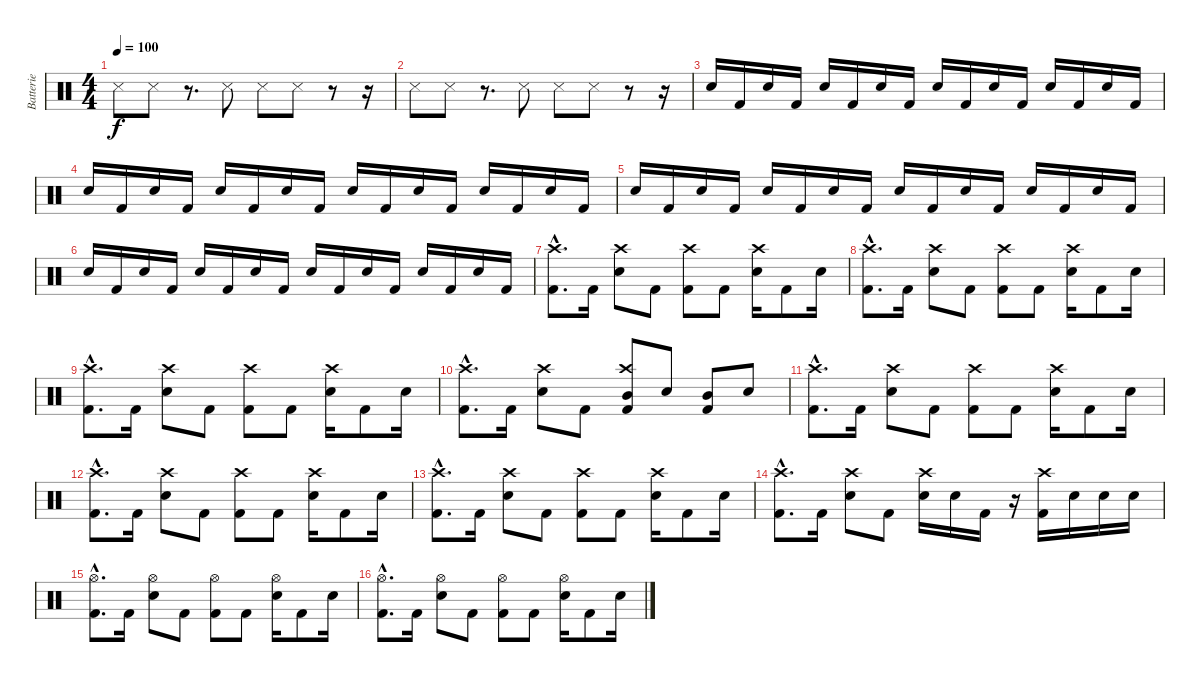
\track ("Batterie" "Batterie") {instrument percussion}
\staff {score}
\articulation defaults
\ts (4 4)
\tempo 100
\clef neutral
\ks c "Snare (side stick) 3".8{dy f} "Snare (side stick) 3".8
r.8{d} "Snare (side stick) 3".8 "Snare (side stick) 3".8 "Snare (side stick) 3".8 r.8 r.16 |
"Snare (side stick) 3".8 "Snare (side stick) 3".8 r.8{d} "Snare (side stick) 3".8 "Snare (side stick) 3".8 "Snare (side stick) 3".8 r.8 r.16 |
"Snare (hit) 2".16 "Kick (hit) 2".16 "Snare (hit) 2".16 "Kick (hit) 2".16 "Snare (hit) 2".16 "Kick (hit) 2".16 "Snare (hit) 2".16 "Kick (hit) 2".16 "Snare (hit) 2".16 "Kick (hit) 2".16 "Snare (hit) 2".16 "Kick (hit) 2".16 "Snare (hit) 2".16 "Kick (hit) 2".16 "Snare (hit) 2".16 "Kick (hit) 2".16 |
"Snare (hit) 2".16 "Kick (hit) 2".16 "Snare (hit) 2".16 "Kick (hit) 2".16 "Snare (hit) 2".16 "Kick (hit) 2".16 "Snare (hit) 2".16 "Kick (hit) 2".16 "Snare (hit) 2".16 "Kick (hit) 2".16 "Snare (hit) 2".16 "Kick (hit) 2".16 "Snare (hit) 2".16 "Kick (hit) 2".16 "Snare (hit) 2".16 "Kick (hit) 2".16 |
"Snare (hit) 2".16 "Kick (hit) 2".16 "Snare (hit) 2".16 "Kick (hit) 2".16 "Snare (hit) 2".16 "Kick (hit) 2".16 "Snare (hit) 2".16 "Kick (hit) 2".16 "Snare (hit) 2".16 "Kick (hit) 2".16 "Snare (hit) 2".16 "Kick (hit) 2".16 "Snare (hit) 2".16 "Kick (hit) 2".16 "Snare (hit) 2".16 "Kick (hit) 2".16 |
"Snare (hit) 2".16 "Kick (hit) 2".16 "Snare (hit) 2".16 "Kick (hit) 2".16 "Snare (hit) 2".16 "Kick (hit) 2".16 "Snare (hit) 2".16 "Kick (hit) 2".16 "Snare (hit) 2".16 "Kick (hit) 2".16 "Snare (hit) 2".16 "Kick (hit) 2".16 "Snare (hit) 2".16 "Kick (hit) 2".16 "Snare (hit) 2".16 "Kick (hit) 2".16 |
("Crash high (hit)"{hac} "Kick (hit) 2"{hac}).8{d} "Kick (hit) 2".16 ("Crash high (hit)" "Snare (hit) 2").8 "Kick (hit) 2".8 ("Crash high (hit)" "Kick (hit) 2").8 "Kick (hit) 2".8 ("Crash high (hit)" "Snare (hit) 2").16 "Kick (hit) 2".8 "Snare (hit) 2".16 |
("Crash high (hit)"{hac} "Kick (hit) 2"{hac}).8{d} "Kick (hit) 2".16 ("Crash high (hit)" "Snare (hit) 2").8 "Kick (hit) 2".8 ("Crash high (hit)" "Kick (hit) 2").8 "Kick (hit) 2".8 ("Crash high (hit)" "Snare (hit) 2").16 "Kick (hit) 2".8 "Snare (hit) 2".16 |
("Crash high (hit)"{hac} "Kick (hit) 2"{hac}).8{d} "Kick (hit) 2".16 ("Crash high (hit)" "Snare (hit) 2").8 "Kick (hit) 2".8 ("Crash high (hit)" "Kick (hit) 2").8 "Kick (hit) 2".8 ("Crash high (hit)" "Snare (hit) 2").16 "Kick (hit) 2".8 "Snare (hit) 2".16 |
("Crash high (hit)"{hac} "Kick (hit) 2"{hac}).8{d} "Kick (hit) 2".16 ("Crash high (hit)" "Snare (hit) 2").8 "Kick (hit) 2".8 ("Crash high (hit)" "Mid Tom (hit)" "Kick (hit) 2"{tr (36 32)}).8 "Snare (hit) 2"{tr (38 32)}.8 ("Mid Tom (hit)" "Kick (hit) 2"{tr (36 32)}).8 "Snare (hit) 2"{tr (38 32)}.8 |
("Crash high (hit)"{hac} "Kick (hit) 2"{hac}).8{d} "Kick (hit) 2".16 ("Crash high (hit)" "Snare (hit) 2").8 "Kick (hit) 2".8 ("Crash high (hit)" "Kick (hit) 2").8 "Kick (hit) 2".8 ("Crash high (hit)" "Snare (hit) 2").16 "Kick (hit) 2".8 "Snare (hit) 2".16 |
("Crash high (hit)"{hac} "Kick (hit) 2"{hac}).8{d} "Kick (hit) 2".16 ("Crash high (hit)" "Snare (hit) 2").8 "Kick (hit) 2".8 ("Crash high (hit)" "Kick (hit) 2").8 "Kick (hit) 2".8 ("Crash high (hit)" "Snare (hit) 2").16 "Kick (hit) 2".8 "Snare (hit) 2".16 |
("Crash high (hit)"{hac} "Kick (hit) 2"{hac}).8{d} "Kick (hit) 2".16 ("Crash high (hit)" "Snare (hit) 2").8 "Kick (hit) 2".8 ("Crash high (hit)" "Kick (hit) 2").8 "Kick (hit) 2".8 ("Crash high (hit)" "Snare (hit) 2").16 "Kick (hit) 2".8 "Snare (hit) 2".16 |
("Crash high (hit)"{hac} "Kick (hit) 2"{hac}).8{d} "Kick (hit) 2".16 ("Crash high (hit)" "Snare (hit) 2").8 "Kick (hit) 2".8 ("Crash high (hit)" "Snare (hit) 2").16 "Snare (hit) 2".16 "Kick (hit) 2".16 r.16 ("Crash high (hit)" "Kick (hit) 2").16 "Snare (hit) 2".16 "Snare (hit) 2".16 "Snare (hit) 2".16 |
("Hi-Hat (open)"{hac} "Kick (hit) 2"{hac}).8{d} "Kick (hit) 2".16 ("Hi-Hat (open)" "Snare (hit) 2").8 "Kick (hit) 2".8 ("Hi-Hat (open)" "Kick (hit) 2").8 "Kick (hit) 2".8 ("Hi-Hat (open)" "Snare (hit) 2").16 "Kick (hit) 2".8 "Snare (hit) 2".16 |
("Hi-Hat (open)"{hac} "Kick (hit) 2"{hac}).8{d} "Kick (hit) 2".16 ("Hi-Hat (open)" "Snare (hit) 2").8 "Kick (hit) 2".8 ("Hi-Hat (open)" "Kick (hit) 2").8 "Kick (hit) 2".8 ("Hi-Hat (open)" "Snare (hit) 2").16 "Kick (hit) 2".8 "Snare (hit) 2".16
